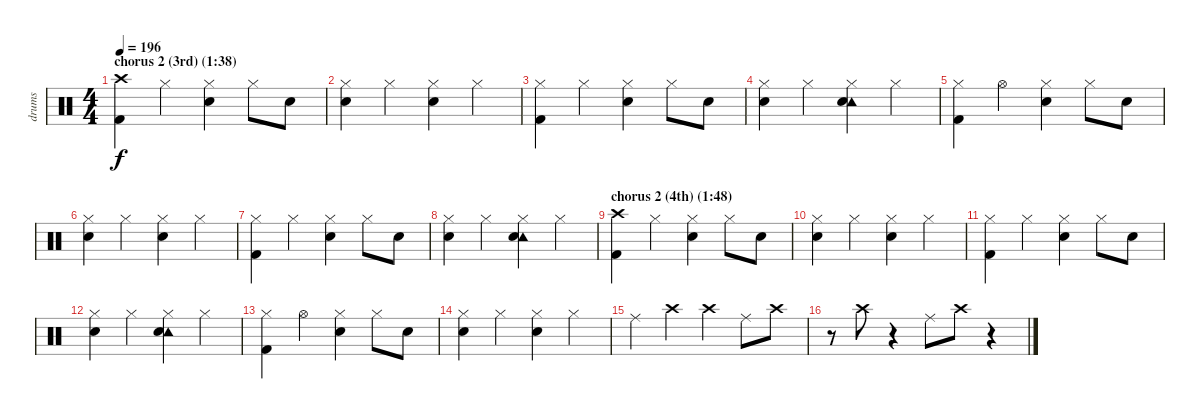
\track ("drums" "drums") {instrument percussion}
\staff {score}
\articulation defaults
\ts (4 4)
\section ("" "chorus 2 (3rd) (1:38)")
\tempo 196
\clef neutral
\ks c
("Crash high (hit)" "Kick (hit) 2").4{dy f} "Hi-Hat (closed)".4 ("Hi-Hat (closed)" "Snare (hit) 2").4 "Hi-Hat (closed)".8 "Snare (hit) 2".8 |
("Hi-Hat (closed)" "Snare (hit) 2").4 "Hi-Hat (closed)".4 ("Hi-Hat (closed)" "Snare (hit) 2").4 "Hi-Hat (closed)".4 |
("Hi-Hat (closed)" "Kick (hit) 2").4 "Hi-Hat (closed)".4 ("Hi-Hat (closed)" "Snare (hit) 2").4 "Hi-Hat (closed)".8 "Snare (hit) 2".8 |
("Hi-Hat (closed)" "Snare (hit) 2").4 "Hi-Hat (closed)".4 ("Hi-Hat (closed)" "Tambourine (hit)" "Snare (hit) 2").4 "Hi-Hat (closed)".4 |
("Hi-Hat (closed)" "Kick (hit) 2").4 "Hi-Hat (open)".4 ("Hi-Hat (closed)" "Snare (hit) 2").4 "Hi-Hat (closed)".8 "Snare (hit) 2".8 |
("Hi-Hat (closed)" "Snare (hit) 2").4 "Hi-Hat (closed)".4 ("Hi-Hat (closed)" "Snare (hit) 2").4 "Hi-Hat (closed)".4 |
("Hi-Hat (closed)" "Kick (hit) 2").4 "Hi-Hat (closed)".4 ("Hi-Hat (closed)" "Snare (hit) 2").4 "Hi-Hat (closed)".8 "Snare (hit) 2".8 |
("Hi-Hat (closed)" "Snare (hit) 2").4 "Hi-Hat (closed)".4 ("Hi-Hat (closed)" "Tambourine (hit)" "Snare (hit) 2").4 "Hi-Hat (closed)".4 |
\section ("" "chorus 2 (4th) (1:48)")
("Crash high (hit)" "Kick (hit) 2").4 "Hi-Hat (closed)".4 ("Hi-Hat (closed)" "Snare (hit) 2").4 "Hi-Hat (closed)".8 "Snare (hit) 2".8 |
("Hi-Hat (closed)" "Snare (hit) 2").4 "Hi-Hat (closed)".4 ("Hi-Hat (closed)" "Snare (hit) 2").4 "Hi-Hat (closed)".4 |
("Hi-Hat (closed)" "Kick (hit) 2").4 "Hi-Hat (closed)".4 ("Hi-Hat (closed)" "Snare (hit) 2").4 "Hi-Hat (closed)".8 "Snare (hit) 2".8 |
("Hi-Hat (closed)" "Snare (hit) 2").4 "Hi-Hat (closed)".4 ("Hi-Hat (closed)" "Tambourine (hit)" "Snare (hit) 2").4 "Hi-Hat (closed)".4 |
("Hi-Hat (closed)" "Kick (hit) 2").4 "Hi-Hat (open)".4 ("Hi-Hat (closed)" "Snare (hit) 2").4 "Hi-Hat (closed)".8 "Snare (hit) 2".8 |
("Hi-Hat (closed)" "Snare (hit) 2").4 "Hi-Hat (closed)".4 ("Hi-Hat (closed)" "Snare (hit) 2").4 "Hi-Hat (closed)".4 |
"Ride (middle)".4 "Crash high (hit)".4 "Crash high (hit)".4 "Ride (middle)".8 "Crash high (hit)".8 |
r.8 "Crash high (hit)".8 r.4 "Ride (middle)".8 "Crash high (hit)".8 r.4
